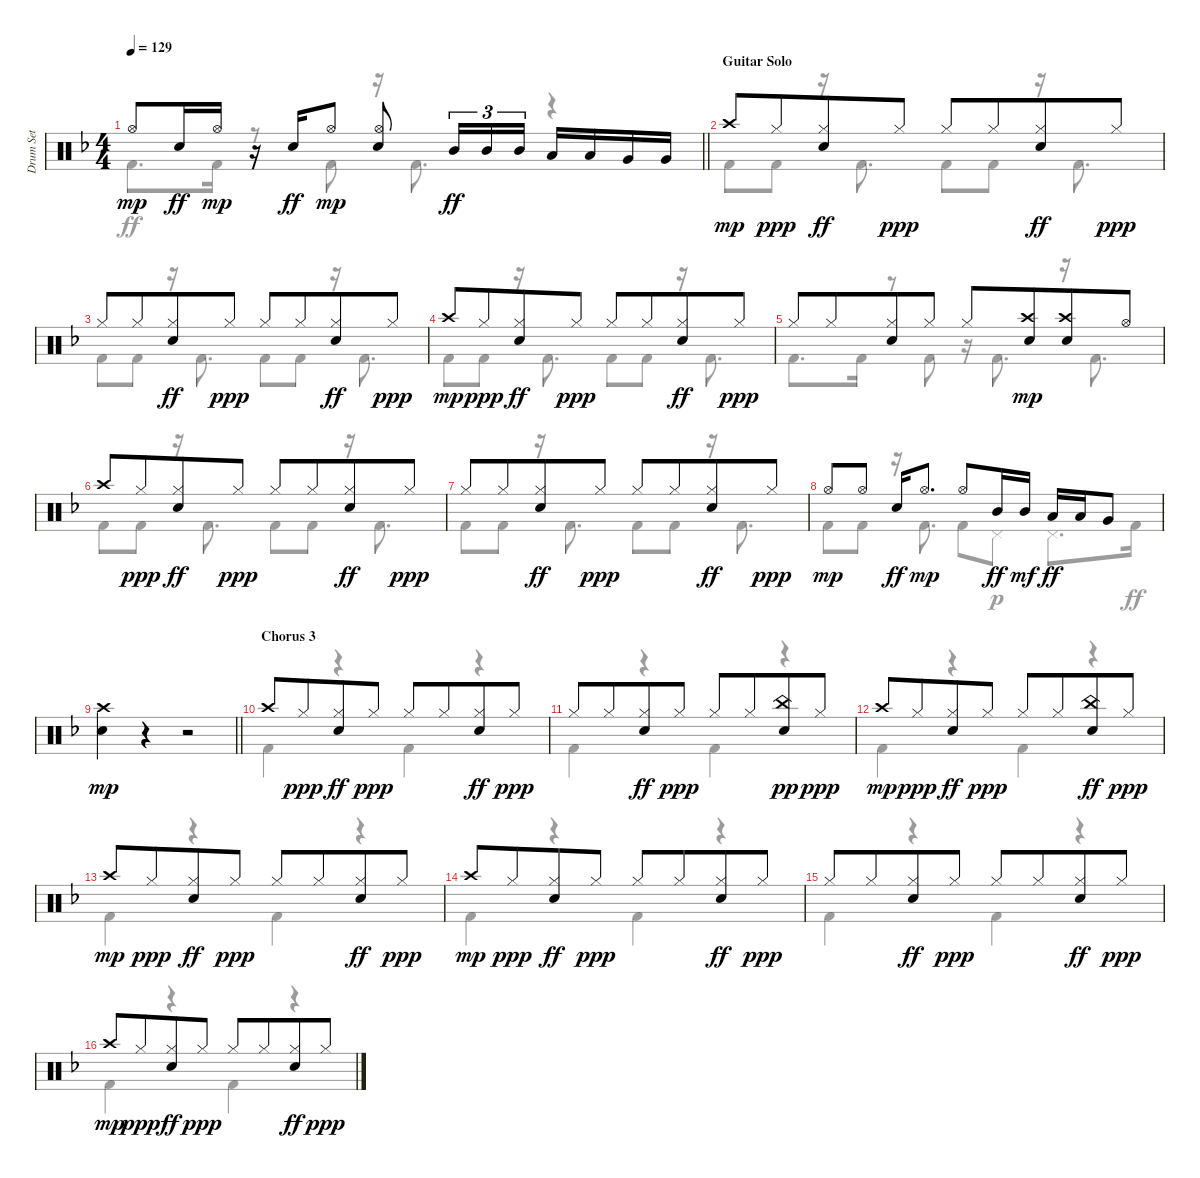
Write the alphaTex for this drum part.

\track ("Drum Set" "Drum Set") {instrument percussion}
\staff {score}
\articulation defaults
\voice
\ts (4 4)
\tempo 129
\clef neutral
\barLineRight lightlight
\ks dminor "Hi-Hat (open)".8{dy mp} "Electric Snare (hit)".16{dy ff} "Hi-Hat (open)".16{dy mp}
r.16 "Electric Snare (hit)".16{dy ff} "Hi-Hat (open)".8{dy mp} ("Electric Snare (hit)" "Hi-Hat (open)").8 "Mid Tom (hit)".16{tu (3 2) dy ff} "Mid Tom (hit)".16{tu (3 2)} "Mid Tom (hit)".16{tu (3 2)} "Low Tom (hit)".16 "Low Tom (hit)".16 "Very Low Tom (hit)".16 "Very Low Tom (hit)".16 |
\section ("" "Guitar Solo")
"Crash high (hit)".8{dy mp} "Hi-Hat (closed)".8{dy ppp beam merge} ("Hi-Hat (closed)" "Electric Snare (hit)").8{dy ff} "Hi-Hat (closed)".8{dy ppp} "Hi-Hat (closed)".8 "Hi-Hat (closed)".8{beam merge} ("Hi-Hat (closed)" "Electric Snare (hit)").8{dy ff} "Hi-Hat (closed)".8{dy ppp} |
"Hi-Hat (closed)".8 "Hi-Hat (closed)".8{beam merge} ("Hi-Hat (closed)" "Electric Snare (hit)").8{dy ff} "Hi-Hat (closed)".8{dy ppp} "Hi-Hat (closed)".8 "Hi-Hat (closed)".8{beam merge} ("Hi-Hat (closed)" "Electric Snare (hit)").8{dy ff} "Hi-Hat (closed)".8{dy ppp} |
"Crash high (hit)".8{dy mp} "Hi-Hat (closed)".8{dy ppp beam merge} ("Hi-Hat (closed)" "Electric Snare (hit)").8{dy ff} "Hi-Hat (closed)".8{dy ppp} "Hi-Hat (closed)".8 "Hi-Hat (closed)".8{beam merge} ("Hi-Hat (closed)" "Electric Snare (hit)").8{dy ff} "Hi-Hat (closed)".8{dy ppp} |
"Hi-Hat (closed)".8 "Hi-Hat (closed)".8{beam merge} ("Electric Snare (hit)" "Hi-Hat (closed)").8 "Hi-Hat (closed)".8 "Hi-Hat (closed)".8 ("Electric Snare (hit)" "Crash high (hit)").8{dy mp beam merge} ("Electric Snare (hit)" "Crash high (hit)").8 "Hi-Hat (open)".8 |
"Crash high (hit)".8 "Hi-Hat (closed)".8{dy ppp beam merge} ("Hi-Hat (closed)" "Electric Snare (hit)").8{dy ff} "Hi-Hat (closed)".8{dy ppp} "Hi-Hat (closed)".8 "Hi-Hat (closed)".8{beam merge} ("Hi-Hat (closed)" "Electric Snare (hit)").8{dy ff} "Hi-Hat (closed)".8{dy ppp} |
"Hi-Hat (closed)".8 "Hi-Hat (closed)".8{beam merge} ("Hi-Hat (closed)" "Electric Snare (hit)").8{dy ff} "Hi-Hat (closed)".8{dy ppp} "Hi-Hat (closed)".8 "Hi-Hat (closed)".8{beam merge} ("Hi-Hat (closed)" "Electric Snare (hit)").8{dy ff} "Hi-Hat (closed)".8{dy ppp} |
"Hi-Hat (open)".8{dy mp} "Hi-Hat (open)".8 "Electric Snare (hit)".16{dy ff} "Hi-Hat (open)".8{d dy mp} "Hi-Hat (open)".8 "Mid Tom (hit)".16{dy ff} "Mid Tom (hit)".16{dy mf} "Low Tom (hit)".16{dy ff} "Low Tom (hit)".16 "Very Low Tom (hit)".8 |
\barLineRight lightlight
("Electric Snare (hit)" "Crash high (hit)").4{dy mp} r.4 r.2 |
\section ("" "Chorus 3")
"Crash high (hit)".8 "Hi-Hat (closed)".8{dy ppp beam merge} ("Hi-Hat (closed)" "Electric Snare (hit)").8{dy ff} "Hi-Hat (closed)".8{dy ppp} "Hi-Hat (closed)".8 "Hi-Hat (closed)".8{beam merge} ("Hi-Hat (closed)" "Electric Snare (hit)").8{dy ff} "Hi-Hat (closed)".8{dy ppp} |
"Hi-Hat (closed)".8 "Hi-Hat (closed)".8{beam merge} ("Hi-Hat (closed)" "Electric Snare (hit)").8{dy ff} "Hi-Hat (closed)".8{dy ppp} "Hi-Hat (closed)".8 "Hi-Hat (closed)".8{beam merge} ("Electric Snare (hit)" "China (hit)").8{dy pp} "Hi-Hat (closed)".8{dy ppp} |
"Crash high (hit)".8{dy mp} "Hi-Hat (closed)".8{dy ppp beam merge} ("Hi-Hat (closed)" "Electric Snare (hit)").8{dy ff} "Hi-Hat (closed)".8{dy ppp} "Hi-Hat (closed)".8 "Hi-Hat (closed)".8{beam merge} ("China (hit)" "Electric Snare (hit)").8{dy ff} "Hi-Hat (closed)".8{dy ppp} |
"Crash high (hit)".8{dy mp} "Hi-Hat (closed)".8{dy ppp beam merge} ("Hi-Hat (closed)" "Electric Snare (hit)").8{dy ff} "Hi-Hat (closed)".8{dy ppp} "Hi-Hat (closed)".8 "Hi-Hat (closed)".8{beam merge} ("Hi-Hat (closed)" "Electric Snare (hit)").8{dy ff} "Hi-Hat (closed)".8{dy ppp} |
"Crash high (hit)".8{dy mp} "Hi-Hat (closed)".8{dy ppp beam merge} ("Hi-Hat (closed)" "Electric Snare (hit)").8{dy ff} "Hi-Hat (closed)".8{dy ppp} "Hi-Hat (closed)".8 "Hi-Hat (closed)".8{beam merge} ("Hi-Hat (closed)" "Electric Snare (hit)").8{dy ff} "Hi-Hat (closed)".8{dy ppp} |
"Hi-Hat (closed)".8 "Hi-Hat (closed)".8{beam merge} ("Hi-Hat (closed)" "Electric Snare (hit)").8{dy ff} "Hi-Hat (closed)".8{dy ppp} "Hi-Hat (closed)".8 "Hi-Hat (closed)".8{beam merge} ("Hi-Hat (closed)" "Electric Snare (hit)").8{dy ff} "Hi-Hat (closed)".8{dy ppp} |
"Crash high (hit)".8{dy mp} "Hi-Hat (closed)".8{dy ppp beam merge} ("Hi-Hat (closed)" "Electric Snare (hit)").8{dy ff} "Hi-Hat (closed)".8{dy ppp} "Hi-Hat (closed)".8 "Hi-Hat (closed)".8{beam merge} ("Hi-Hat (closed)" "Electric Snare (hit)").8{dy ff} "Hi-Hat (closed)".8{dy ppp}
\voice
\clef neutral
\ottava regular
\simile none
\barLineRight lightlight
\ks dminor "Kick (hit) 2".8{d dy ff} "Kick (hit) 2".16
r.8 "Kick (hit) 2".8 r.16 "Kick (hit) 2".8{d} r.4 |
"Kick (hit) 2".8 "Kick (hit) 2".8 r.16 "Kick (hit) 2".8{d} "Kick (hit) 2".8 "Kick (hit) 2".8 r.16 "Kick (hit) 2".8{d} |
"Kick (hit) 2".8 "Kick (hit) 2".8 r.16 "Kick (hit) 2".8{d} "Kick (hit) 2".8 "Kick (hit) 2".8 r.16 "Kick (hit) 2".8{d} |
"Kick (hit) 2".8 "Kick (hit) 2".8 r.16 "Kick (hit) 2".8{d} "Kick (hit) 2".8 "Kick (hit) 2".8 r.16 "Kick (hit) 2".8{d} |
"Kick (hit) 2".8{d} "Kick (hit) 2".16 r.8 "Kick (hit) 2".8 r.16 "Kick (hit) 2".8{d} r.16 "Kick (hit) 2".8{d} |
"Kick (hit) 2".8 "Kick (hit) 2".8 r.16 "Kick (hit) 2".8{d} "Kick (hit) 2".8 "Kick (hit) 2".8 r.16 "Kick (hit) 2".8{d} |
"Kick (hit) 2".8 "Kick (hit) 2".8 r.16 "Kick (hit) 2".8{d} "Kick (hit) 2".8 "Kick (hit) 2".8 r.16 "Kick (hit) 2".8{d} |
"Kick (hit) 2".8 "Kick (hit) 2".8 r.16 "Kick (hit) 2".8{d} "Kick (hit) 2".8 "Pedal Hi-Hat (hit)".8{dy p} "Pedal Hi-Hat (hit)".8{d} "Kick (hit) 2".16{dy ff} |
\barLineRight lightlight
|
"Kick (hit) 2".4 r.4 "Kick (hit) 2".4 r.4 |
"Kick (hit) 2".4 r.4 "Kick (hit) 2".4 r.4 |
"Kick (hit) 2".4 r.4 "Kick (hit) 2".4 r.4 |
"Kick (hit) 2".4 r.4 "Kick (hit) 2".4 r.4 |
"Kick (hit) 2".4 r.4 "Kick (hit) 2".4 r.4 |
"Kick (hit) 2".4 r.4 "Kick (hit) 2".4 r.4 |
"Kick (hit) 2".4 r.4 "Kick (hit) 2".4 r.4
